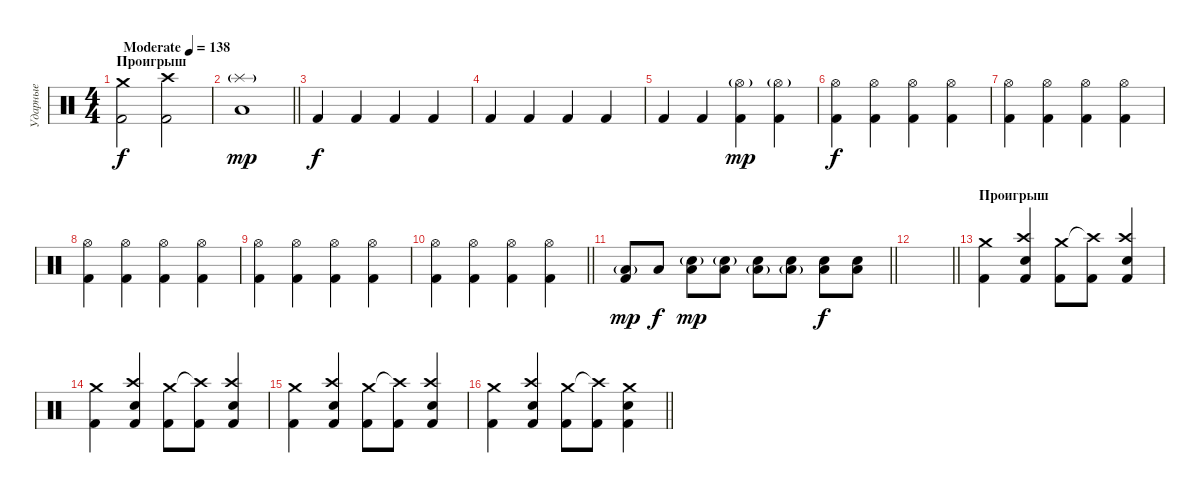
\track ("Ударные" "Ударные") {instrument percussion}
\staff {score}
\articulation defaults
\ts (4 4)
\section ("" "Проигрыш")
\tempo (138 "Moderate")
\clef neutral
\ks c
("Crash medium (hit)" "Kick (hit) 2").2{dy f} ("Crash high (hit)" "Kick (hit) 2").2 |
\barLineRight lightlight
("Low Tom (hit)" "Splash (hit)"{g}).1{dy mp} |
"Kick (hit) 2".4{dy f} "Kick (hit) 2".4 "Kick (hit) 2".4 "Kick (hit) 2".4 |
"Kick (hit) 2".4 "Kick (hit) 2".4 "Kick (hit) 2".4 "Kick (hit) 2".4 |
"Kick (hit) 2".4 "Kick (hit) 2".4 ("Hi-Hat (open)"{g} "Kick (hit) 2").4{dy mp} ("Hi-Hat (open)"{g} "Kick (hit) 2").4 |
("Hi-Hat (open)" "Kick (hit) 2").4{dy f} ("Hi-Hat (open)" "Kick (hit) 2").4 ("Hi-Hat (open)" "Kick (hit) 2").4 ("Hi-Hat (open)" "Kick (hit) 2").4 |
("Hi-Hat (open)" "Kick (hit) 2").4 ("Hi-Hat (open)" "Kick (hit) 2").4 ("Hi-Hat (open)" "Kick (hit) 2").4 ("Hi-Hat (open)" "Kick (hit) 2").4 |
("Hi-Hat (open)" "Kick (hit) 2").4 ("Hi-Hat (open)" "Kick (hit) 2").4 ("Hi-Hat (open)" "Kick (hit) 2").4 ("Hi-Hat (open)" "Kick (hit) 2").4 |
("Hi-Hat (open)" "Kick (hit) 2").4 ("Hi-Hat (open)" "Kick (hit) 2").4 ("Hi-Hat (open)" "Kick (hit) 2").4 ("Hi-Hat (open)" "Kick (hit) 2").4 |
\barLineRight lightlight
("Hi-Hat (open)" "Kick (hit) 2").4 ("Hi-Hat (open)" "Kick (hit) 2").4 ("Hi-Hat (open)" "Kick (hit) 2").4 ("Hi-Hat (open)" "Kick (hit) 2").4 |
\barLineRight lightlight
("Low Floor Tom (hit)"{g} "Kick (hit) 2").8{dy mp} "Low Floor Tom (hit)".8{dy f} ("Low Floor Tom (hit)" "Snare (hit) 2"{g}).8{dy mp} ("Low Floor Tom (hit)" "Snare (hit) 2"{g}).8 ("Low Floor Tom (hit)"{g} "Snare (hit) 2").8 ("Low Floor Tom (hit)"{g} "Snare (hit) 2").8 ("Low Floor Tom (hit)" "Snare (hit) 2").8{dy f} ("Low Floor Tom (hit)" "Snare (hit) 2").8 |
\barLineRight lightlight
|
\section ("" "Проигрыш")
("Crash medium (hit)" "Kick (hit) 2").4 ("Crash high (hit)" "Snare (hit) 2" "Kick (hit) 2").4 ("Crash medium (hit)" "Kick (hit) 2").8 ("Crash high (hit)"{t} "Kick (hit) 2").8 ("Crash high (hit)" "Snare (hit) 2" "Kick (hit) 2").4 |
("Crash medium (hit)" "Kick (hit) 2").4 ("Crash high (hit)" "Snare (hit) 2" "Kick (hit) 2").4 ("Crash medium (hit)" "Kick (hit) 2").8 ("Crash high (hit)"{t} "Kick (hit) 2").8 ("Crash high (hit)" "Snare (hit) 2" "Kick (hit) 2").4 |
("Crash medium (hit)" "Kick (hit) 2").4 ("Crash high (hit)" "Snare (hit) 2" "Kick (hit) 2").4 ("Crash medium (hit)" "Kick (hit) 2").8 ("Crash high (hit)"{t} "Kick (hit) 2").8 ("Crash high (hit)" "Snare (hit) 2" "Kick (hit) 2").4 |
\barLineRight lightlight
("Crash medium (hit)" "Kick (hit) 2").4 ("Crash high (hit)" "Snare (hit) 2" "Kick (hit) 2").4 ("Crash medium (hit)" "Kick (hit) 2").8 ("Crash high (hit)"{t} "Kick (hit) 2").8 ("Crash medium (hit)" "Snare (hit) 2" "Kick (hit) 2").4
